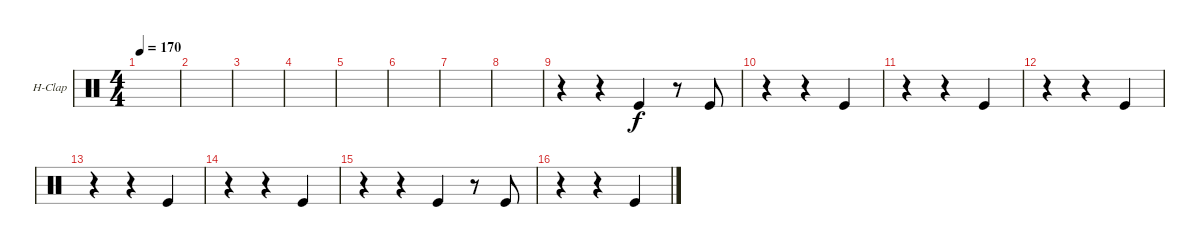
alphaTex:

\defaultSystemsLayout 4
\bracketExtendMode groupsimilarinstruments
\firstSystemTrackNameOrientation horizontal
\otherSystemsTrackNameOrientation horizontal
\track ("Hand Clap" "H-Clap") {instrument percussion}
\staff {score}
\articulation defaults
\ts (4 4)
\tempo 170
\clef neutral
\scale
0.474178
\ks c
|
\scale
0.262911 |
\scale
0.262911 |
\scale
0.333333 |
\scale
0.333333 |
\scale
0.333333 |
\scale
0.333333 |
\scale
0.333333 |
\scale
0.333333 r.4 r.4 "Kick (hit)".4 r.8 "Kick (hit)".8 |
\scale
0.333333 r.4 r.4 "Kick (hit)".4 |
\scale
0.333333 r.4 r.4 "Kick (hit)".4 |
\scale
0.333333 r.4 r.4 "Kick (hit)".4 |
\scale
0.333333 r.4 r.4 "Kick (hit)".4 |
\scale
0.333333 r.4 r.4 "Kick (hit)".4 |
\scale
0.333333 r.4 r.4 "Kick (hit)".4 r.8 "Kick (hit)".8 |
r.4 r.4 "Kick (hit)".4
